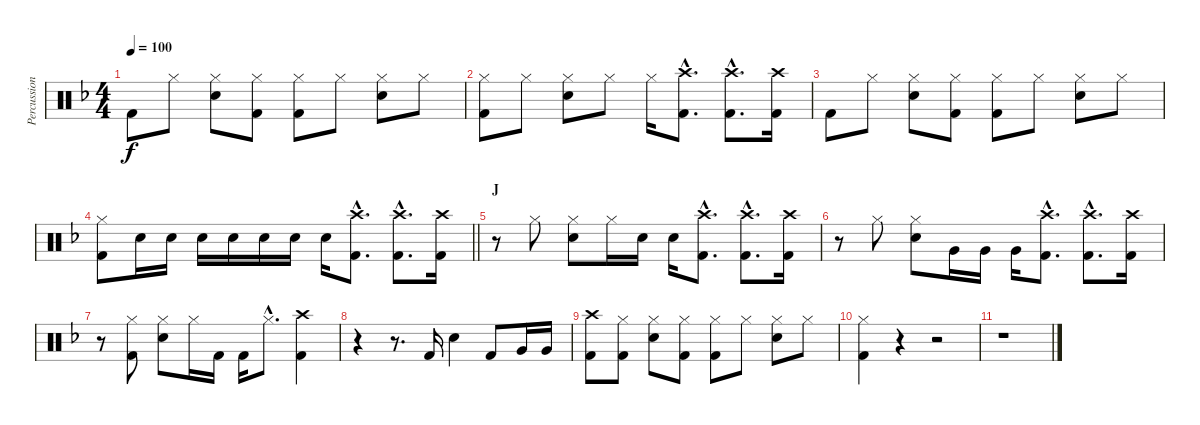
\track ("Percussion" "Percussion") {instrument percussion}
\staff {score}
\articulation defaults
\ts (4 4)
\tempo 100
\clef neutral
\ks f "Kick (hit) 2".8{dy f} "Hi-Hat (closed)".8
("Hi-Hat (closed)" "Snare (hit) 2").8 ("Hi-Hat (closed)" "Kick (hit) 2").8 ("Hi-Hat (closed)" "Kick (hit) 2").8 "Hi-Hat (closed)".8 ("Hi-Hat (closed)" "Snare (hit) 2").8 "Hi-Hat (closed)".8 |
("Hi-Hat (closed)" "Kick (hit) 2").8 "Hi-Hat (closed)".8 ("Hi-Hat (closed)" "Snare (hit) 2").8 "Hi-Hat (closed)".8 "Hi-Hat (closed)".16 ("Crash high (hit)"{hac} "Kick (hit) 2"{hac}).8{d} ("Crash high (hit)"{hac} "Kick (hit) 2"{hac}).8{d} ("Crash high (hit)" "Kick (hit) 2").16 |
"Kick (hit) 2".8 "Hi-Hat (closed)".8 ("Hi-Hat (closed)" "Snare (hit) 2").8 ("Hi-Hat (closed)" "Kick (hit) 2").8 ("Hi-Hat (closed)" "Kick (hit) 2").8 "Hi-Hat (closed)".8 ("Hi-Hat (closed)" "Snare (hit) 2").8 "Hi-Hat (closed)".8 |
\barLineRight lightlight
("Hi-Hat (closed)" "Kick (hit) 2").8 "Snare (hit) 2".16 "Snare (hit) 2".16 "Snare (hit) 2".16 "Snare (hit) 2".16 "Snare (hit) 2".16 "Snare (hit) 2".16 "Snare (hit) 2".16 ("Crash high (hit)"{hac} "Kick (hit) 2"{hac}).8{d} ("Crash high (hit)"{hac} "Kick (hit) 2"{hac}).8{d} ("Crash high (hit)" "Kick (hit) 2").16 |
\section ("" "J")
r.8 "Hi-Hat (closed)".8 ("Hi-Hat (closed)" "Snare (hit) 2").8 "Hi-Hat (closed)".16 "Snare (hit) 2".16 "Snare (hit) 2".16 ("Crash high (hit)"{hac} "Kick (hit) 2"{hac}).8{d} ("Crash high (hit)"{hac} "Kick (hit) 2"{hac}).8{d} ("Crash high (hit)" "Kick (hit) 2").16 |
r.8 "Hi-Hat (closed)".8 ("Hi-Hat (closed)" "Snare (hit) 2").8 "Very Low Tom (hit)".16 "Very Low Tom (hit)".16 "Very Low Tom (hit)".16 ("Crash high (hit)"{hac} "Kick (hit) 2"{hac}).8{d} ("Crash high (hit)"{hac} "Kick (hit) 2"{hac}).8{d} ("Crash high (hit)" "Kick (hit) 2").16 |
r.8 ("Hi-Hat (closed)" "Kick (hit) 2").8 ("Hi-Hat (closed)" "Snare (hit) 2").8 "Hi-Hat (closed)".16 "Kick (hit) 2".16 "Kick (hit) 2".16 "Hi-Hat (closed)"{hac}.8{d} ("Crash high (hit)" "Kick (hit) 2").4 |
r.4 r.8{d} "Kick (hit) 2".16 "Snare (hit) 2".4 "Kick (hit) 2".8 "Very Low Tom (hit)".16 "Very Low Tom (hit)".16 |
("Crash high (hit)" "Kick (hit) 2").8 ("Hi-Hat (closed)" "Kick (hit) 2").8 ("Hi-Hat (closed)" "Snare (hit) 2").8 ("Hi-Hat (closed)" "Kick (hit) 2").8 ("Hi-Hat (closed)" "Kick (hit) 2").8 "Hi-Hat (closed)".8 ("Hi-Hat (closed)" "Snare (hit) 2").8 "Hi-Hat (closed)".8 |
("Hi-Hat (closed)" "Kick (hit) 2").4 r.4 r.2 |
r.1
